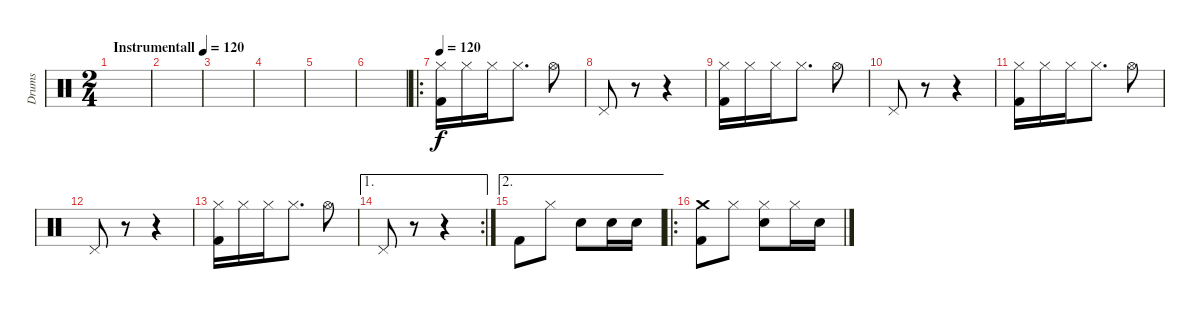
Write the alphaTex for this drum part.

\track ("Drums" "Drums") {instrument percussion}
\staff {score}
\articulation defaults
\ts (2 4)
\tempo (120 "Instrumentall")
\clef neutral
\ks aminor
|
|
|
|
|
|
\ro
\tempo 120
("Hi-Hat (closed)" "Kick (hit) 2").16 "Hi-Hat (closed)".16 "Hi-Hat (closed)".16 "Hi-Hat (closed)".8{d} "Hi-Hat (open)".8 |
"Pedal Hi-Hat (hit)".8 r.8 r.4 |
("Hi-Hat (closed)" "Kick (hit) 2").16 "Hi-Hat (closed)".16 "Hi-Hat (closed)".16 "Hi-Hat (closed)".8{d} "Hi-Hat (open)".8 |
"Pedal Hi-Hat (hit)".8 r.8 r.4 |
("Hi-Hat (closed)" "Kick (hit) 2").16 "Hi-Hat (closed)".16 "Hi-Hat (closed)".16 "Hi-Hat (closed)".8{d} "Hi-Hat (open)".8 |
"Pedal Hi-Hat (hit)".8 r.8 r.4 |
("Hi-Hat (closed)" "Kick (hit) 2").16 "Hi-Hat (closed)".16 "Hi-Hat (closed)".16 "Hi-Hat (closed)".8{d} "Hi-Hat (open)".8 |
\ae 1
\rc 2 "Pedal Hi-Hat (hit)".8
r.8 r.4 |
\ae 2 "Kick (hit) 2".8 "Hi-Hat (closed)".8 "Electric Snare (hit)".8 "Electric Snare (hit)".16 "Electric Snare (hit)".16
|
\ro
("Crash medium (hit)" "Kick (hit) 2").8 "Hi-Hat (closed)".8 ("Hi-Hat (closed)" "Electric Snare (hit)").8 "Hi-Hat (closed)".16 "Electric Snare (hit)".16
